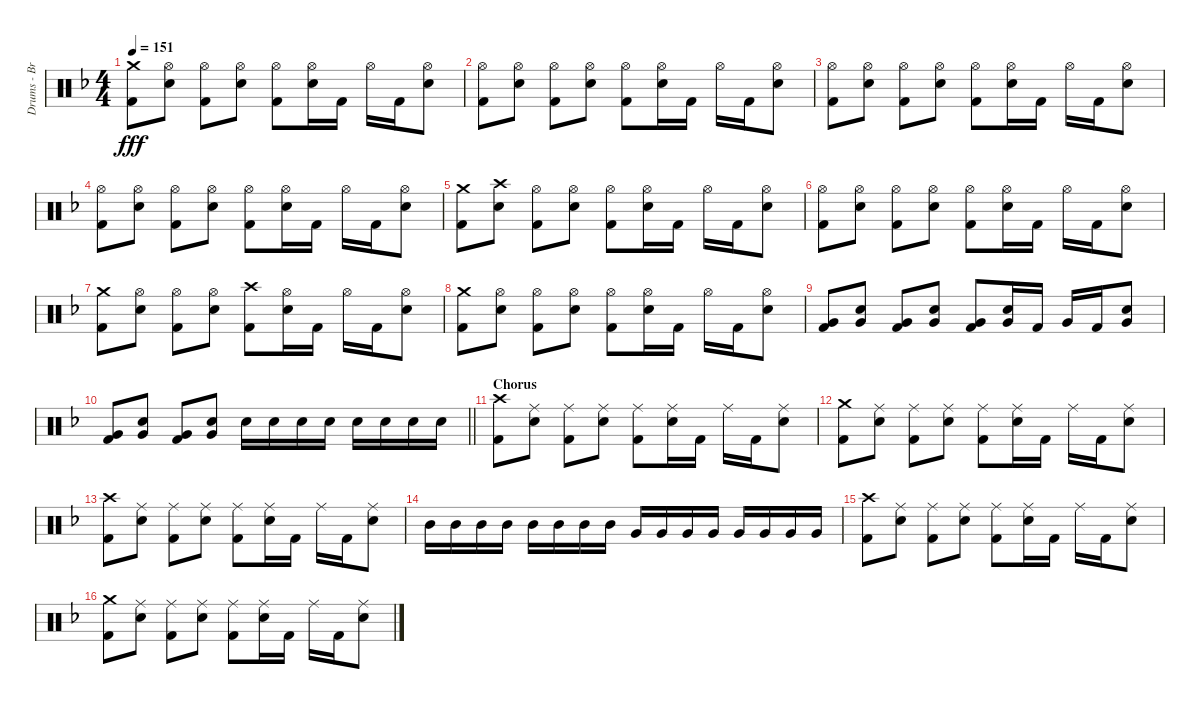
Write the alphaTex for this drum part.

\track ("Drums - Brooks Wackerman" "Drums - Br") {instrument percussion}
\staff {score}
\articulation defaults
\ts (4 4)
\tempo 151
\clef neutral
\ks f
("Crash medium (hit)" "Kick (hit) 2").8{dy fff} ("Hi-Hat (open)" "Snare (hit) 2").8 ("Hi-Hat (open)" "Kick (hit) 2").8 ("Hi-Hat (open)" "Snare (hit) 2").8 ("Hi-Hat (open)" "Kick (hit) 2").8 ("Hi-Hat (open)" "Snare (hit) 2").16 "Kick (hit) 2".16 "Hi-Hat (open)".16 "Kick (hit) 2".16 ("Hi-Hat (open)" "Snare (hit) 2").8 |
("Hi-Hat (open)" "Kick (hit) 2").8 ("Hi-Hat (open)" "Snare (hit) 2").8 ("Hi-Hat (open)" "Kick (hit) 2").8 ("Hi-Hat (open)" "Snare (hit) 2").8 ("Hi-Hat (open)" "Kick (hit) 2").8 ("Hi-Hat (open)" "Snare (hit) 2").16 "Kick (hit) 2".16 "Hi-Hat (open)".16 "Kick (hit) 2".16 ("Hi-Hat (open)" "Snare (hit) 2").8 |
("Hi-Hat (open)" "Kick (hit) 2").8 ("Hi-Hat (open)" "Snare (hit) 2").8 ("Hi-Hat (open)" "Kick (hit) 2").8 ("Hi-Hat (open)" "Snare (hit) 2").8 ("Hi-Hat (open)" "Kick (hit) 2").8 ("Hi-Hat (open)" "Snare (hit) 2").16 "Kick (hit) 2".16 "Hi-Hat (open)".16 "Kick (hit) 2".16 ("Hi-Hat (open)" "Snare (hit) 2").8 |
("Hi-Hat (open)" "Kick (hit) 2").8 ("Hi-Hat (open)" "Snare (hit) 2").8 ("Hi-Hat (open)" "Kick (hit) 2").8 ("Hi-Hat (open)" "Snare (hit) 2").8 ("Hi-Hat (open)" "Kick (hit) 2").8 ("Hi-Hat (open)" "Snare (hit) 2").16 "Kick (hit) 2".16 "Hi-Hat (open)".16 "Kick (hit) 2".16 ("Hi-Hat (open)" "Snare (hit) 2").8 |
("Crash medium (hit)" "Kick (hit) 2").8 ("Crash high (hit)" "Snare (hit) 2").8 ("Hi-Hat (open)" "Kick (hit) 2").8 ("Hi-Hat (open)" "Snare (hit) 2").8 ("Hi-Hat (open)" "Kick (hit) 2").8 ("Hi-Hat (open)" "Snare (hit) 2").16 "Kick (hit) 2".16 "Hi-Hat (open)".16 "Kick (hit) 2".16 ("Hi-Hat (open)" "Snare (hit) 2").8 |
("Hi-Hat (open)" "Kick (hit) 2").8 ("Hi-Hat (open)" "Snare (hit) 2").8 ("Hi-Hat (open)" "Kick (hit) 2").8 ("Hi-Hat (open)" "Snare (hit) 2").8 ("Hi-Hat (open)" "Kick (hit) 2").8 ("Hi-Hat (open)" "Snare (hit) 2").16 "Kick (hit) 2".16 "Hi-Hat (open)".16 "Kick (hit) 2".16 ("Hi-Hat (open)" "Snare (hit) 2").8 |
("Crash medium (hit)" "Kick (hit) 2").8 ("Hi-Hat (open)" "Snare (hit) 2").8 ("Hi-Hat (open)" "Kick (hit) 2").8 ("Hi-Hat (open)" "Snare (hit) 2").8 ("Crash high (hit)" "Kick (hit) 2").8 ("Hi-Hat (open)" "Snare (hit) 2").16 "Kick (hit) 2".16 "Hi-Hat (open)".16 "Kick (hit) 2".16 ("Hi-Hat (open)" "Snare (hit) 2").8 |
("Crash medium (hit)" "Kick (hit) 2").8 ("Hi-Hat (open)" "Snare (hit) 2").8 ("Hi-Hat (open)" "Kick (hit) 2").8 ("Hi-Hat (open)" "Snare (hit) 2").8 ("Hi-Hat (open)" "Kick (hit) 2").8 ("Hi-Hat (open)" "Snare (hit) 2").16 "Kick (hit) 2".16 "Hi-Hat (open)".16 "Kick (hit) 2".16 ("Hi-Hat (open)" "Snare (hit) 2").8 |
("Very Low Tom (hit)" "Kick (hit) 2").8 ("Snare (hit) 2" "Very Low Tom (hit)").8 ("Very Low Tom (hit)" "Kick (hit) 2").8 ("Snare (hit) 2" "Very Low Tom (hit)").8 ("Very Low Tom (hit)" "Kick (hit) 2").8 ("Snare (hit) 2" "Very Low Tom (hit)").16 "Kick (hit) 2".16 "Very Low Tom (hit)".16 "Kick (hit) 2".16 ("Snare (hit) 2" "Very Low Tom (hit)").8 |
\barLineRight lightlight
("Very Low Tom (hit)" "Kick (hit) 2").8 ("Snare (hit) 2" "Very Low Tom (hit)").8 ("Very Low Tom (hit)" "Kick (hit) 2").8 ("Snare (hit) 2" "Very Low Tom (hit)").8 "Snare (hit) 2".16 "Snare (hit) 2".16 "Snare (hit) 2".16 "Snare (hit) 2".16 "Snare (hit) 2".16 "Snare (hit) 2".16 "Snare (hit) 2".16 "Snare (hit) 2".16 |
\section ("" "Chorus")
("Crash high (hit)" "Kick (hit) 2").8 ("Ride (middle)" "Snare (hit) 2").8 ("Ride (middle)" "Kick (hit) 2").8 ("Ride (middle)" "Snare (hit) 2").8 ("Ride (middle)" "Kick (hit) 2").8 ("Ride (middle)" "Snare (hit) 2").16 "Kick (hit) 2".16 "Ride (middle)".16 "Kick (hit) 2".16 ("Ride (middle)" "Snare (hit) 2").8 |
("Crash medium (hit)" "Kick (hit) 2").8 ("Ride (middle)" "Snare (hit) 2").8 ("Ride (middle)" "Kick (hit) 2").8 ("Ride (middle)" "Snare (hit) 2").8 ("Ride (middle)" "Kick (hit) 2").8 ("Ride (middle)" "Snare (hit) 2").16 "Kick (hit) 2".16 "Ride (middle)".16 "Kick (hit) 2".16 ("Ride (middle)" "Snare (hit) 2").8 |
("Crash high (hit)" "Kick (hit) 2").8 ("Ride (middle)" "Snare (hit) 2").8 ("Ride (middle)" "Kick (hit) 2").8 ("Ride (middle)" "Snare (hit) 2").8 ("Ride (middle)" "Kick (hit) 2").8 ("Ride (middle)" "Snare (hit) 2").16 "Kick (hit) 2".16 "Ride (middle)".16 "Kick (hit) 2".16 ("Ride (middle)" "Snare (hit) 2").8 |
"Mid Tom (hit)".16 "Mid Tom (hit)".16 "Mid Tom (hit)".16 "Mid Tom (hit)".16 "Mid Tom (hit)".16 "Mid Tom (hit)".16 "Mid Tom (hit)".16 "Mid Tom (hit)".16 "Very Low Tom (hit)".16 "Very Low Tom (hit)".16 "Very Low Tom (hit)".16 "Very Low Tom (hit)".16 "Very Low Tom (hit)".16 "Very Low Tom (hit)".16 "Very Low Tom (hit)".16 "Very Low Tom (hit)".16 |
("Crash high (hit)" "Kick (hit) 2").8 ("Ride (middle)" "Snare (hit) 2").8 ("Ride (middle)" "Kick (hit) 2").8 ("Ride (middle)" "Snare (hit) 2").8 ("Ride (middle)" "Kick (hit) 2").8 ("Ride (middle)" "Snare (hit) 2").16 "Kick (hit) 2".16 "Ride (middle)".16 "Kick (hit) 2".16 ("Ride (middle)" "Snare (hit) 2").8 |
("Crash medium (hit)" "Kick (hit) 2").8 ("Ride (middle)" "Snare (hit) 2").8 ("Ride (middle)" "Kick (hit) 2").8 ("Ride (middle)" "Snare (hit) 2").8 ("Ride (middle)" "Kick (hit) 2").8 ("Ride (middle)" "Snare (hit) 2").16 "Kick (hit) 2".16 "Ride (middle)".16 "Kick (hit) 2".16 ("Ride (middle)" "Snare (hit) 2").8
